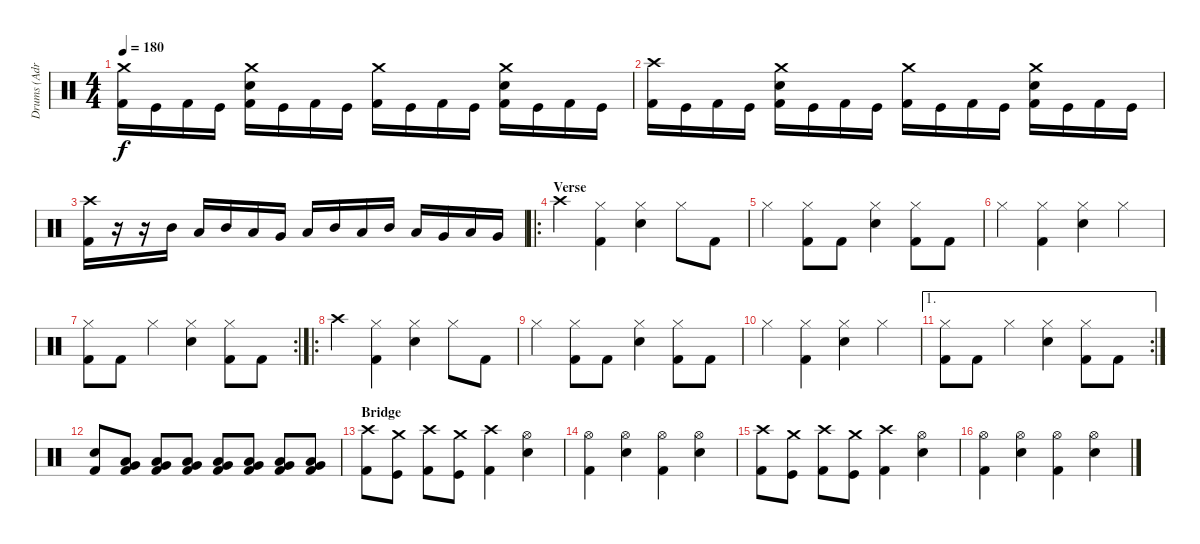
\track ("Drums (Adrian)" "Drums (Adr") {instrument percussion}
\staff {score}
\articulation defaults
\ts (4 4)
\tempo 180
\clef neutral
\ks c
("Crash medium (hit)" "Kick (hit) 2").16{dy f} "Kick (hit)".16 "Kick (hit) 2".16 "Kick (hit)".16 ("Crash medium (hit)" "Electric Snare (hit)" "Kick (hit) 2").16 "Kick (hit)".16 "Kick (hit) 2".16 "Kick (hit)".16 ("Crash medium (hit)" "Kick (hit) 2").16 "Kick (hit)".16 "Kick (hit) 2".16 "Kick (hit)".16 ("Crash medium (hit)" "Electric Snare (hit)" "Kick (hit) 2").16 "Kick (hit)".16 "Kick (hit) 2".16 "Kick (hit)".16 |
("Crash high (hit)" "Kick (hit) 2").16 "Kick (hit)".16 "Kick (hit) 2".16 "Kick (hit)".16 ("Crash medium (hit)" "Electric Snare (hit)" "Kick (hit) 2").16 "Kick (hit)".16 "Kick (hit) 2".16 "Kick (hit)".16 ("Crash medium (hit)" "Kick (hit) 2").16 "Kick (hit)".16 "Kick (hit) 2".16 "Kick (hit)".16 ("Crash medium (hit)" "Electric Snare (hit)" "Kick (hit) 2").16 "Kick (hit)".16 "Kick (hit) 2".16 "Kick (hit)".16 |
("Crash high (hit)" "Kick (hit) 2").16 r.16 r.16 "Mid Tom (hit)".16 "Low Tom (hit)".16 "Mid Tom (hit)".16 "Low Tom (hit)".16 "Very Low Tom (hit)".16 "Low Tom (hit)".16 "Mid Tom (hit)".16 "Low Tom (hit)".16 "Mid Tom (hit)".16 "Low Tom (hit)".16 "Very Low Tom (hit)".16 "Low Floor Tom (hit)".16 "Very Low Tom (hit)".16 |
\ro
\section ("" "Verse")
"Crash high (hit)".4 ("Hi-Hat (closed)" "Kick (hit) 2").4 ("Hi-Hat (closed)" "Snare (hit) 2").4 "Hi-Hat (closed)".8 "Kick (hit) 2".8 |
"Hi-Hat (closed)".4 ("Hi-Hat (closed)" "Kick (hit) 2").8 "Kick (hit) 2".8 ("Hi-Hat (closed)" "Snare (hit) 2").4 ("Hi-Hat (closed)" "Kick (hit) 2").8 "Kick (hit) 2".8 |
"Hi-Hat (closed)".4 ("Hi-Hat (closed)" "Kick (hit) 2").4 ("Hi-Hat (closed)" "Snare (hit) 2").4 "Hi-Hat (closed)".4 |
\rc 2
("Hi-Hat (closed)" "Kick (hit) 2").8 "Kick (hit) 2".8 "Hi-Hat (closed)".4 ("Hi-Hat (closed)" "Snare (hit) 2").4 ("Hi-Hat (closed)" "Kick (hit) 2").8 "Kick (hit) 2".8 |
\ro "Crash high (hit)".4
("Hi-Hat (closed)" "Kick (hit) 2").4 ("Hi-Hat (closed)" "Snare (hit) 2").4 "Hi-Hat (closed)".8 "Kick (hit) 2".8 |
"Hi-Hat (closed)".4 ("Hi-Hat (closed)" "Kick (hit) 2").8 "Kick (hit) 2".8 ("Hi-Hat (closed)" "Snare (hit) 2").4 ("Hi-Hat (closed)" "Kick (hit) 2").8 "Kick (hit) 2".8 |
"Hi-Hat (closed)".4 ("Hi-Hat (closed)" "Kick (hit) 2").4 ("Hi-Hat (closed)" "Snare (hit) 2").4 "Hi-Hat (closed)".4 |
\ae 1
\rc 2
("Hi-Hat (closed)" "Kick (hit) 2").8 "Kick (hit) 2".8 "Hi-Hat (closed)".4 ("Hi-Hat (closed)" "Snare (hit) 2").4 ("Hi-Hat (closed)" "Kick (hit) 2").8 "Kick (hit) 2".8 |
("Electric Snare (hit)" "Kick (hit) 2").8 ("Very Low Tom (hit)" "Low Floor Tom (hit)" "Kick (hit) 2").8 ("Very Low Tom (hit)" "Low Floor Tom (hit)" "Kick (hit) 2").8 ("Very Low Tom (hit)" "Low Floor Tom (hit)" "Kick (hit) 2").8 ("Very Low Tom (hit)" "Low Floor Tom (hit)" "Kick (hit) 2").8 ("Very Low Tom (hit)" "Low Floor Tom (hit)" "Kick (hit) 2").8 ("Very Low Tom (hit)" "Low Floor Tom (hit)" "Kick (hit) 2").8 ("Very Low Tom (hit)" "Low Floor Tom (hit)" "Kick (hit) 2").8 |
\section ("" "Bridge")
("Crash high (hit)" "Kick (hit) 2").8 ("Crash medium (hit)" "Kick (hit)").8 ("Crash high (hit)" "Kick (hit) 2").8 ("Crash medium (hit)" "Kick (hit)").8 ("Crash high (hit)" "Kick (hit) 2").4 ("Hi-Hat (open)" "Electric Snare (hit)").4 |
("Hi-Hat (open)" "Kick (hit) 2").4 ("Hi-Hat (open)" "Electric Snare (hit)").4 ("Hi-Hat (open)" "Kick (hit) 2").4 ("Hi-Hat (open)" "Electric Snare (hit)").4 |
("Crash high (hit)" "Kick (hit) 2").8 ("Crash medium (hit)" "Kick (hit)").8 ("Crash high (hit)" "Kick (hit) 2").8 ("Crash medium (hit)" "Kick (hit)").8 ("Crash high (hit)" "Kick (hit) 2").4 ("Hi-Hat (open)" "Electric Snare (hit)").4 |
("Hi-Hat (open)" "Kick (hit) 2").4 ("Hi-Hat (open)" "Electric Snare (hit)").4 ("Hi-Hat (open)" "Kick (hit) 2").4 ("Hi-Hat (open)" "Electric Snare (hit)").4
